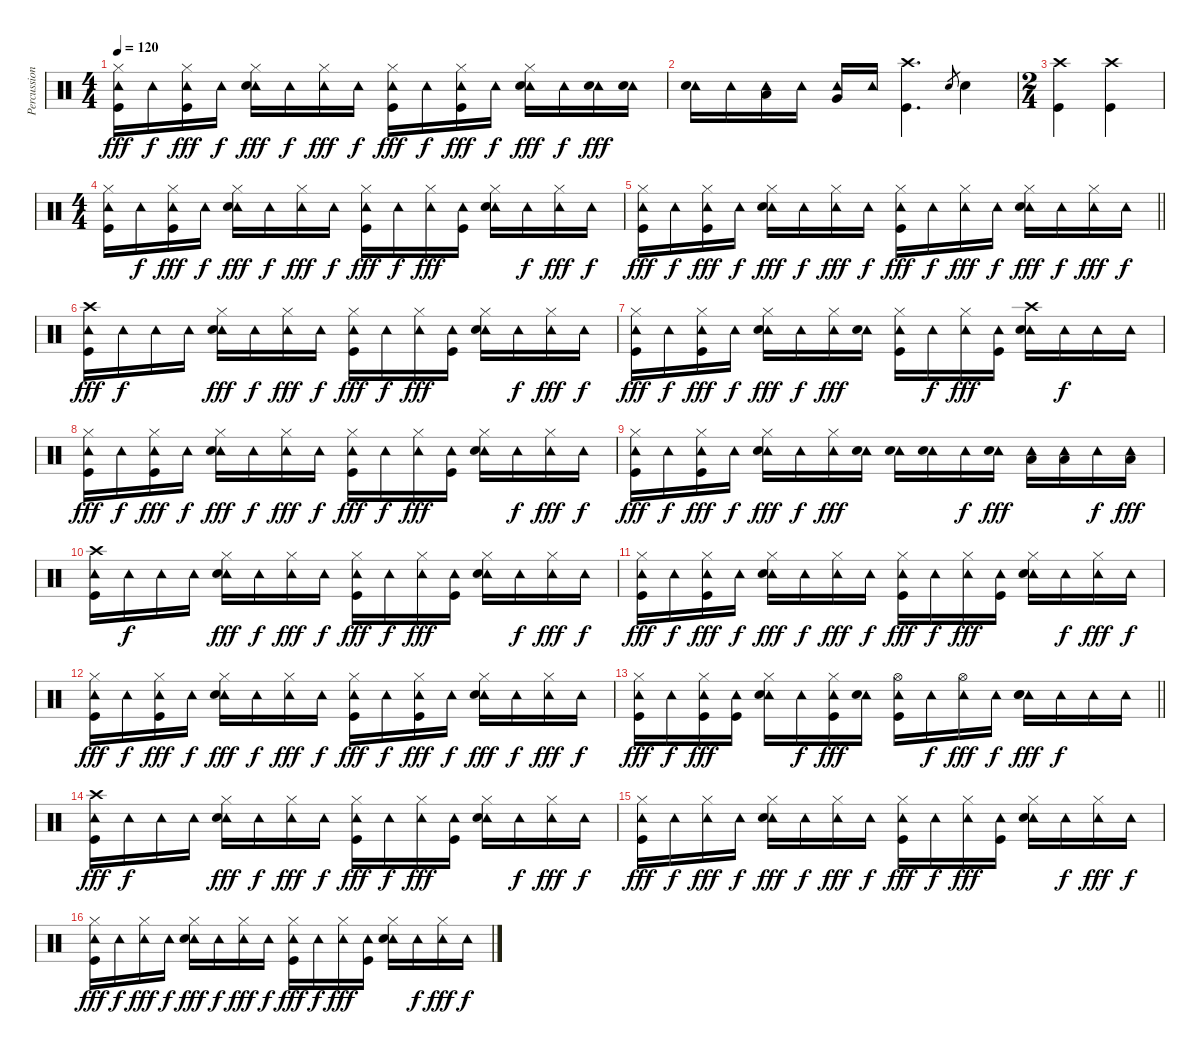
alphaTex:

\track ("Percussioni" "Percussion") {instrument percussion}
\staff {score}
\articulation defaults
\ts (4 4)
\tempo 120
\clef neutral
\ks c
("Hi-Hat (closed)" "Tambourine (hit)" "Kick (hit)").16{dy fff} "Tambourine (hit)".16{dy f} ("Hi-Hat (closed)" "Tambourine (hit)" "Kick (hit)").16{dy fff} "Tambourine (hit)".16{dy f} ("Hi-Hat (closed)" "Tambourine (hit)" "Snare (hit) 2").16{dy fff} "Tambourine (hit)".16{dy f} ("Hi-Hat (closed)" "Tambourine (hit)").16{dy fff} "Tambourine (hit)".16{dy f} ("Hi-Hat (closed)" "Tambourine (hit)" "Kick (hit)").16{dy fff} "Tambourine (hit)".16{dy f} ("Hi-Hat (closed)" "Tambourine (hit)" "Kick (hit)").16{dy fff} "Tambourine (hit)".16{dy f} ("Hi-Hat (closed)" "Tambourine (hit)" "Snare (hit) 2").16{dy fff} "Tambourine (hit)".16{dy f} ("Tambourine (hit)" "Snare (hit) 2").16{dy fff} ("Tambourine (hit)" "Snare (hit) 2").16 |
("Tambourine (hit)" "Snare (hit) 2").16 "Tambourine (hit)".16 ("Tambourine (hit)" "Low Tom (hit)").16 "Tambourine (hit)".16 ("Tambourine (hit)" "Very Low Tom (hit)").16 "Tambourine (hit)".16 ("Crash high (hit)" "Kick (hit)").4{d} "Snare (hit) 2".8{gr} "Snare (hit) 2".4 |
\ts (2 4)
("Crash high (hit)" "Kick (hit)").4 ("Crash high (hit)" "Kick (hit)").4 |
\ts (4 4)
("Hi-Hat (closed)" "Tambourine (hit)" "Kick (hit)").16 "Tambourine (hit)".16{dy f} ("Hi-Hat (closed)" "Tambourine (hit)" "Kick (hit)").16{dy fff} "Tambourine (hit)".16{dy f} ("Hi-Hat (closed)" "Tambourine (hit)" "Snare (hit) 2").16{dy fff} "Tambourine (hit)".16{dy f} ("Hi-Hat (closed)" "Tambourine (hit)").16{dy fff} "Tambourine (hit)".16{dy f} ("Hi-Hat (closed)" "Tambourine (hit)" "Kick (hit)").16{dy fff} "Tambourine (hit)".16{dy f} ("Hi-Hat (closed)" "Tambourine (hit)").16{dy fff} ("Tambourine (hit)" "Kick (hit)").16 ("Hi-Hat (closed)" "Tambourine (hit)" "Snare (hit) 2").16 "Tambourine (hit)".16{dy f} ("Hi-Hat (closed)" "Tambourine (hit)").16{dy fff} "Tambourine (hit)".16{dy f} |
\barLineRight lightlight
("Hi-Hat (closed)" "Tambourine (hit)" "Kick (hit)").16{dy fff} "Tambourine (hit)".16{dy f} ("Hi-Hat (closed)" "Tambourine (hit)" "Kick (hit)").16{dy fff} "Tambourine (hit)".16{dy f} ("Hi-Hat (closed)" "Tambourine (hit)" "Snare (hit) 2").16{dy fff} "Tambourine (hit)".16{dy f} ("Hi-Hat (closed)" "Tambourine (hit)").16{dy fff} "Tambourine (hit)".16{dy f} ("Hi-Hat (closed)" "Tambourine (hit)" "Kick (hit)").16{dy fff} "Tambourine (hit)".16{dy f} ("Hi-Hat (closed)" "Tambourine (hit)").16{dy fff} "Tambourine (hit)".16{dy f} ("Hi-Hat (closed)" "Tambourine (hit)" "Snare (hit) 2").16{dy fff} "Tambourine (hit)".16{dy f} ("Hi-Hat (closed)" "Tambourine (hit)").16{dy fff} "Tambourine (hit)".16{dy f} |
("Crash high (hit)" "Tambourine (hit)" "Kick (hit)").16{dy fff} "Tambourine (hit)".16{dy f} "Tambourine (hit)".16 "Tambourine (hit)".16 ("Hi-Hat (closed)" "Tambourine (hit)" "Snare (hit) 2").16{dy fff} "Tambourine (hit)".16{dy f} ("Hi-Hat (closed)" "Tambourine (hit)").16{dy fff} "Tambourine (hit)".16{dy f} ("Hi-Hat (closed)" "Tambourine (hit)" "Kick (hit)").16{dy fff} "Tambourine (hit)".16{dy f} ("Hi-Hat (closed)" "Tambourine (hit)").16{dy fff} ("Tambourine (hit)" "Kick (hit)").16 ("Hi-Hat (closed)" "Tambourine (hit)" "Snare (hit) 2").16 "Tambourine (hit)".16{dy f} ("Hi-Hat (closed)" "Tambourine (hit)").16{dy fff} "Tambourine (hit)".16{dy f} |
("Hi-Hat (closed)" "Tambourine (hit)" "Kick (hit)").16{dy fff} "Tambourine (hit)".16{dy f} ("Hi-Hat (closed)" "Tambourine (hit)" "Kick (hit)").16{dy fff} "Tambourine (hit)".16{dy f} ("Hi-Hat (closed)" "Tambourine (hit)" "Snare (hit) 2").16{dy fff} "Tambourine (hit)".16{dy f} ("Hi-Hat (closed)" "Tambourine (hit)").16{dy fff} ("Tambourine (hit)" "Snare (hit) 2").16 ("Hi-Hat (closed)" "Tambourine (hit)" "Kick (hit)").16 "Tambourine (hit)".16{dy f} ("Hi-Hat (closed)" "Tambourine (hit)").16{dy fff} ("Tambourine (hit)" "Kick (hit)").16 ("Crash high (hit)" "Tambourine (hit)" "Snare (hit) 2").16 "Tambourine (hit)".16{dy f} "Tambourine (hit)".16 "Tambourine (hit)".16 |
("Hi-Hat (closed)" "Tambourine (hit)" "Kick (hit)").16{dy fff} "Tambourine (hit)".16{dy f} ("Hi-Hat (closed)" "Tambourine (hit)" "Kick (hit)").16{dy fff} "Tambourine (hit)".16{dy f} ("Hi-Hat (closed)" "Tambourine (hit)" "Snare (hit) 2").16{dy fff} "Tambourine (hit)".16{dy f} ("Hi-Hat (closed)" "Tambourine (hit)").16{dy fff} "Tambourine (hit)".16{dy f} ("Hi-Hat (closed)" "Tambourine (hit)" "Kick (hit)").16{dy fff} "Tambourine (hit)".16{dy f} ("Hi-Hat (closed)" "Tambourine (hit)").16{dy fff} ("Tambourine (hit)" "Kick (hit)").16 ("Hi-Hat (closed)" "Tambourine (hit)" "Snare (hit) 2").16 "Tambourine (hit)".16{dy f} ("Hi-Hat (closed)" "Tambourine (hit)").16{dy fff} "Tambourine (hit)".16{dy f} |
("Hi-Hat (closed)" "Tambourine (hit)" "Kick (hit)").16{dy fff} "Tambourine (hit)".16{dy f} ("Hi-Hat (closed)" "Tambourine (hit)" "Kick (hit)").16{dy fff} "Tambourine (hit)".16{dy f} ("Hi-Hat (closed)" "Tambourine (hit)" "Snare (hit) 2").16{dy fff} "Tambourine (hit)".16{dy f} ("Hi-Hat (closed)" "Tambourine (hit)").16{dy fff} ("Tambourine (hit)" "Snare (hit) 2").16 ("Tambourine (hit)" "Snare (hit) 2").16 ("Tambourine (hit)" "Snare (hit) 2").16 "Tambourine (hit)".16{dy f} ("Tambourine (hit)" "Snare (hit) 2").16{dy fff} ("Tambourine (hit)" "Low Tom (hit)").16 ("Tambourine (hit)" "Low Tom (hit)").16 "Tambourine (hit)".16{dy f} ("Tambourine (hit)" "Low Tom (hit)").16{dy fff} |
("Crash high (hit)" "Tambourine (hit)" "Kick (hit)").16 "Tambourine (hit)".16{dy f} "Tambourine (hit)".16 "Tambourine (hit)".16 ("Hi-Hat (closed)" "Tambourine (hit)" "Snare (hit) 2").16{dy fff} "Tambourine (hit)".16{dy f} ("Hi-Hat (closed)" "Tambourine (hit)").16{dy fff} "Tambourine (hit)".16{dy f} ("Hi-Hat (closed)" "Tambourine (hit)" "Kick (hit)").16{dy fff} "Tambourine (hit)".16{dy f} ("Hi-Hat (closed)" "Tambourine (hit)").16{dy fff} ("Tambourine (hit)" "Kick (hit)").16 ("Hi-Hat (closed)" "Tambourine (hit)" "Snare (hit) 2").16 "Tambourine (hit)".16{dy f} ("Hi-Hat (closed)" "Tambourine (hit)").16{dy fff} "Tambourine (hit)".16{dy f} |
("Hi-Hat (closed)" "Tambourine (hit)" "Kick (hit)").16{dy fff} "Tambourine (hit)".16{dy f} ("Hi-Hat (closed)" "Tambourine (hit)" "Kick (hit)").16{dy fff} "Tambourine (hit)".16{dy f} ("Hi-Hat (closed)" "Tambourine (hit)" "Snare (hit) 2").16{dy fff} "Tambourine (hit)".16{dy f} ("Hi-Hat (closed)" "Tambourine (hit)").16{dy fff} "Tambourine (hit)".16{dy f} ("Hi-Hat (closed)" "Tambourine (hit)" "Kick (hit)").16{dy fff} "Tambourine (hit)".16{dy f} ("Hi-Hat (closed)" "Tambourine (hit)").16{dy fff} ("Tambourine (hit)" "Kick (hit)").16 ("Hi-Hat (closed)" "Tambourine (hit)" "Snare (hit) 2").16 "Tambourine (hit)".16{dy f} ("Hi-Hat (closed)" "Tambourine (hit)").16{dy fff} "Tambourine (hit)".16{dy f} |
("Hi-Hat (closed)" "Tambourine (hit)" "Kick (hit)").16{dy fff} "Tambourine (hit)".16{dy f} ("Hi-Hat (closed)" "Tambourine (hit)" "Kick (hit)").16{dy fff} "Tambourine (hit)".16{dy f} ("Hi-Hat (closed)" "Tambourine (hit)" "Snare (hit) 2").16{dy fff} "Tambourine (hit)".16{dy f} ("Hi-Hat (closed)" "Tambourine (hit)").16{dy fff} "Tambourine (hit)".16{dy f} ("Hi-Hat (closed)" "Tambourine (hit)" "Kick (hit)").16{dy fff} "Tambourine (hit)".16{dy f} ("Hi-Hat (closed)" "Tambourine (hit)" "Kick (hit)").16{dy fff} "Tambourine (hit)".16{dy f} ("Hi-Hat (closed)" "Tambourine (hit)" "Snare (hit) 2").16{dy fff} "Tambourine (hit)".16{dy f} ("Hi-Hat (closed)" "Tambourine (hit)").16{dy fff} "Tambourine (hit)".16{dy f} |
\barLineRight lightlight
("Hi-Hat (closed)" "Tambourine (hit)" "Kick (hit)").16{dy fff} "Tambourine (hit)".16{dy f} ("Hi-Hat (closed)" "Tambourine (hit)" "Kick (hit)").16{dy fff} ("Tambourine (hit)" "Kick (hit)").16 ("Hi-Hat (closed)" "Tambourine (hit)" "Snare (hit) 2").16 "Tambourine (hit)".16{dy f} ("Hi-Hat (closed)" "Tambourine (hit)" "Kick (hit)").16{dy fff} ("Tambourine (hit)" "Snare (hit) 2").16 ("Hi-Hat (open)" "Tambourine (hit)" "Kick (hit)").16 "Tambourine (hit)".16{dy f} ("Hi-Hat (open)" "Tambourine (hit)").16{dy fff} "Tambourine (hit)".16{dy f} ("Tambourine (hit)" "Snare (hit) 2" "Snare (hit) 2").16{dy fff} "Tambourine (hit)".16{dy f} "Tambourine (hit)".16 "Tambourine (hit)".16 |
("Crash high (hit)" "Tambourine (hit)" "Kick (hit)").16{dy fff} "Tambourine (hit)".16{dy f} "Tambourine (hit)".16 "Tambourine (hit)".16 ("Hi-Hat (closed)" "Tambourine (hit)" "Snare (hit) 2").16{dy fff} "Tambourine (hit)".16{dy f} ("Hi-Hat (closed)" "Tambourine (hit)").16{dy fff} "Tambourine (hit)".16{dy f} ("Hi-Hat (closed)" "Tambourine (hit)" "Kick (hit)").16{dy fff} "Tambourine (hit)".16{dy f} ("Hi-Hat (closed)" "Tambourine (hit)").16{dy fff} ("Tambourine (hit)" "Kick (hit)").16 ("Hi-Hat (closed)" "Tambourine (hit)" "Snare (hit) 2").16 "Tambourine (hit)".16{dy f} ("Hi-Hat (closed)" "Tambourine (hit)").16{dy fff} "Tambourine (hit)".16{dy f} |
("Hi-Hat (closed)" "Tambourine (hit)" "Kick (hit)").16{dy fff} "Tambourine (hit)".16{dy f} ("Hi-Hat (closed)" "Tambourine (hit)").16{dy fff} "Tambourine (hit)".16{dy f} ("Hi-Hat (closed)" "Tambourine (hit)" "Snare (hit) 2").16{dy fff} "Tambourine (hit)".16{dy f} ("Hi-Hat (closed)" "Tambourine (hit)").16{dy fff} "Tambourine (hit)".16{dy f} ("Hi-Hat (closed)" "Tambourine (hit)" "Kick (hit)").16{dy fff} "Tambourine (hit)".16{dy f} ("Hi-Hat (closed)" "Tambourine (hit)").16{dy fff} ("Tambourine (hit)" "Kick (hit)").16 ("Hi-Hat (closed)" "Tambourine (hit)" "Snare (hit) 2").16 "Tambourine (hit)".16{dy f} ("Hi-Hat (closed)" "Tambourine (hit)").16{dy fff} "Tambourine (hit)".16{dy f} |
("Hi-Hat (closed)" "Tambourine (hit)" "Kick (hit)").16{dy fff} "Tambourine (hit)".16{dy f} ("Hi-Hat (closed)" "Tambourine (hit)").16{dy fff} "Tambourine (hit)".16{dy f} ("Hi-Hat (closed)" "Tambourine (hit)" "Snare (hit) 2").16{dy fff} "Tambourine (hit)".16{dy f} ("Hi-Hat (closed)" "Tambourine (hit)").16{dy fff} "Tambourine (hit)".16{dy f} ("Hi-Hat (closed)" "Tambourine (hit)" "Kick (hit)").16{dy fff} "Tambourine (hit)".16{dy f} ("Hi-Hat (closed)" "Tambourine (hit)").16{dy fff} ("Tambourine (hit)" "Kick (hit)").16 ("Hi-Hat (closed)" "Tambourine (hit)" "Snare (hit) 2").16 "Tambourine (hit)".16{dy f} ("Hi-Hat (closed)" "Tambourine (hit)").16{dy fff} "Tambourine (hit)".16{dy f}
